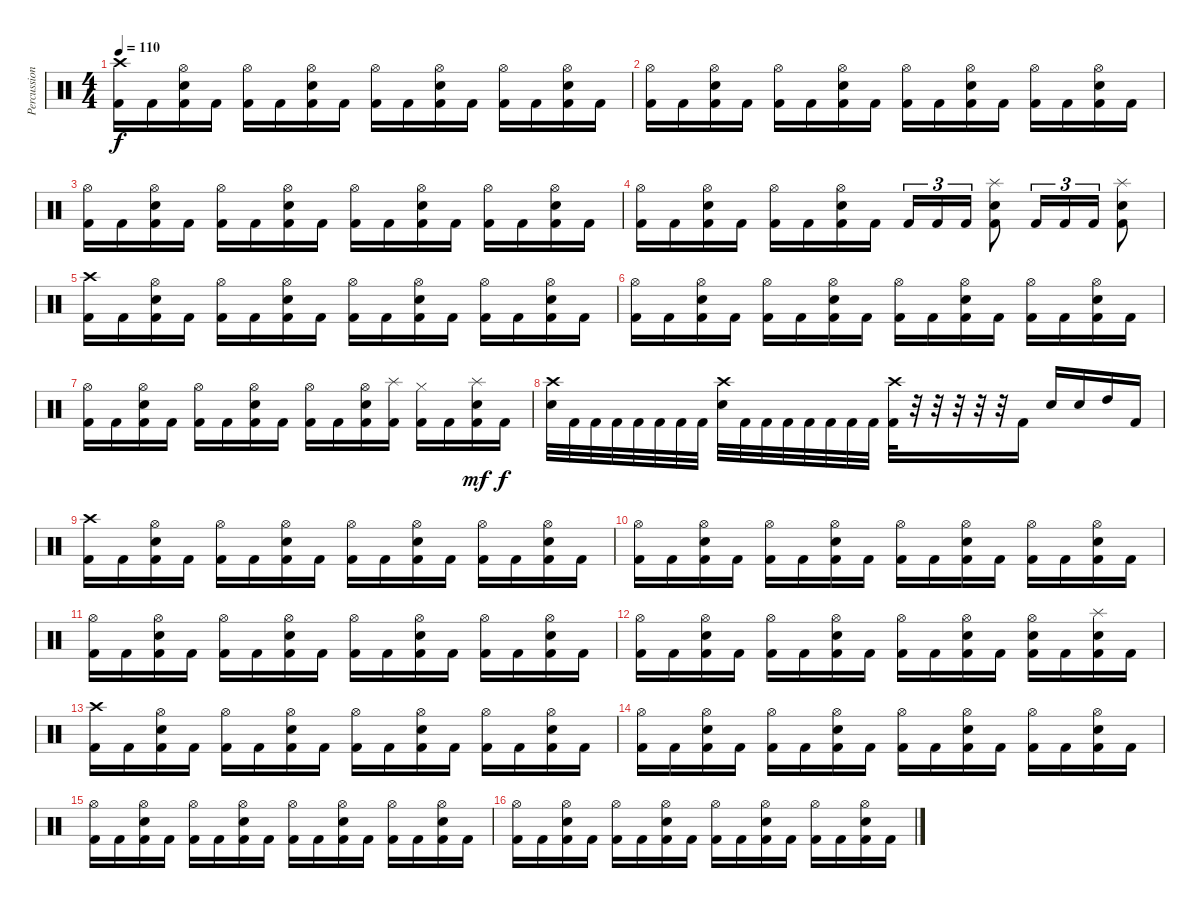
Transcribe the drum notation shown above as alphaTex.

\track ("Percussion" "Percussion") {instrument percussion}
\staff {score}
\articulation defaults
\ts (4 4)
\tempo 110
\clef neutral
\ks c
("Crash high (hit)" "Kick (hit) 2").16{dy f} "Kick (hit) 2".16 ("Hi-Hat (open)" "Electric Snare (hit)" "Kick (hit) 2").16 "Kick (hit) 2".16 ("Hi-Hat (open)" "Kick (hit) 2").16 "Kick (hit) 2".16 ("Hi-Hat (open)" "Electric Snare (hit)" "Kick (hit) 2").16 "Kick (hit) 2".16 ("Hi-Hat (open)" "Kick (hit) 2").16 "Kick (hit) 2".16 ("Hi-Hat (open)" "Electric Snare (hit)" "Kick (hit) 2").16 "Kick (hit) 2".16 ("Hi-Hat (open)" "Kick (hit) 2").16 "Kick (hit) 2".16 ("Hi-Hat (open)" "Electric Snare (hit)" "Kick (hit) 2").16 "Kick (hit) 2".16 |
("Hi-Hat (open)" "Kick (hit) 2").16 "Kick (hit) 2".16 ("Hi-Hat (open)" "Electric Snare (hit)" "Kick (hit) 2").16 "Kick (hit) 2".16 ("Hi-Hat (open)" "Kick (hit) 2").16 "Kick (hit) 2".16 ("Hi-Hat (open)" "Electric Snare (hit)" "Kick (hit) 2").16 "Kick (hit) 2".16 ("Hi-Hat (open)" "Kick (hit) 2").16 "Kick (hit) 2".16 ("Hi-Hat (open)" "Electric Snare (hit)" "Kick (hit) 2").16 "Kick (hit) 2".16 ("Hi-Hat (open)" "Kick (hit) 2").16 "Kick (hit) 2".16 ("Hi-Hat (open)" "Electric Snare (hit)" "Kick (hit) 2").16 "Kick (hit) 2".16 |
("Hi-Hat (open)" "Kick (hit) 2").16 "Kick (hit) 2".16 ("Hi-Hat (open)" "Electric Snare (hit)" "Kick (hit) 2").16 "Kick (hit) 2".16 ("Hi-Hat (open)" "Kick (hit) 2").16 "Kick (hit) 2".16 ("Hi-Hat (open)" "Electric Snare (hit)" "Kick (hit) 2").16 "Kick (hit) 2".16 ("Hi-Hat (open)" "Kick (hit) 2").16 "Kick (hit) 2".16 ("Hi-Hat (open)" "Electric Snare (hit)" "Kick (hit) 2").16 "Kick (hit) 2".16 ("Hi-Hat (open)" "Kick (hit) 2").16 "Kick (hit) 2".16 ("Hi-Hat (open)" "Electric Snare (hit)" "Kick (hit) 2").16 "Kick (hit) 2".16 |
("Hi-Hat (open)" "Kick (hit) 2").16 "Kick (hit) 2".16 ("Hi-Hat (open)" "Electric Snare (hit)" "Kick (hit) 2").16 "Kick (hit) 2".16 ("Hi-Hat (open)" "Kick (hit) 2").16 "Kick (hit) 2".16 ("Hi-Hat (open)" "Electric Snare (hit)" "Kick (hit) 2").16 "Kick (hit) 2".16 "Kick (hit) 2".16{tu (3 2)} "Kick (hit) 2".16{tu (3 2)} "Kick (hit) 2".16{tu (3 2)} ("Splash (hit)" "Electric Snare (hit)" "Kick (hit) 2").8 "Kick (hit) 2".16{tu (3 2)} "Kick (hit) 2".16{tu (3 2)} "Kick (hit) 2".16{tu (3 2)} ("Splash (hit)" "Electric Snare (hit)" "Kick (hit) 2").8 |
("Crash high (hit)" "Kick (hit) 2").16 "Kick (hit) 2".16 ("Hi-Hat (open)" "Electric Snare (hit)" "Kick (hit) 2").16 "Kick (hit) 2".16 ("Hi-Hat (open)" "Kick (hit) 2").16 "Kick (hit) 2".16 ("Hi-Hat (open)" "Electric Snare (hit)" "Kick (hit) 2").16 "Kick (hit) 2".16 ("Hi-Hat (open)" "Kick (hit) 2").16 "Kick (hit) 2".16 ("Hi-Hat (open)" "Electric Snare (hit)" "Kick (hit) 2").16 "Kick (hit) 2".16 ("Hi-Hat (open)" "Kick (hit) 2").16 "Kick (hit) 2".16 ("Hi-Hat (open)" "Electric Snare (hit)" "Kick (hit) 2").16 "Kick (hit) 2".16 |
("Hi-Hat (open)" "Kick (hit) 2").16 "Kick (hit) 2".16 ("Hi-Hat (open)" "Electric Snare (hit)" "Kick (hit) 2").16 "Kick (hit) 2".16 ("Hi-Hat (open)" "Kick (hit) 2").16 "Kick (hit) 2".16 ("Hi-Hat (open)" "Electric Snare (hit)" "Kick (hit) 2").16 "Kick (hit) 2".16 ("Hi-Hat (open)" "Kick (hit) 2").16 "Kick (hit) 2".16 ("Hi-Hat (open)" "Electric Snare (hit)" "Kick (hit) 2").16 "Kick (hit) 2".16 ("Hi-Hat (open)" "Kick (hit) 2").16 "Kick (hit) 2".16 ("Hi-Hat (open)" "Electric Snare (hit)" "Kick (hit) 2").16 "Kick (hit) 2".16 |
("Hi-Hat (open)" "Kick (hit) 2").16 "Kick (hit) 2".16 ("Hi-Hat (open)" "Electric Snare (hit)" "Kick (hit) 2").16 "Kick (hit) 2".16 ("Hi-Hat (open)" "Kick (hit) 2").16 "Kick (hit) 2".16 ("Hi-Hat (open)" "Electric Snare (hit)" "Kick (hit) 2").16 "Kick (hit) 2".16 ("Hi-Hat (open)" "Kick (hit) 2").16 "Kick (hit) 2".16 ("Hi-Hat (open)" "Electric Snare (hit)" "Kick (hit) 2").16 ("Splash (hit)" "Kick (hit) 2").16 ("Hi-Hat (closed)" "Kick (hit) 2").16 "Kick (hit) 2".16 ("Splash (hit)" "Electric Snare (hit)" "Kick (hit) 2").16{dy mf} "Kick (hit) 2".16{dy f} |
("Crash high (hit)" "Electric Snare (hit)").32 "Kick (hit) 2".32 "Kick (hit) 2".32 "Kick (hit) 2".32 "Kick (hit) 2".32 "Kick (hit) 2".32 "Kick (hit) 2".32 "Kick (hit) 2".32 ("Crash high (hit)" "Electric Snare (hit)").32 "Kick (hit) 2".32 "Kick (hit) 2".32 "Kick (hit) 2".32 "Kick (hit) 2".32 "Kick (hit) 2".32 "Kick (hit) 2".32 "Kick (hit) 2".32 ("Crash high (hit)" "Kick (hit) 2").32 r.32 r.32 r.32 r.32 r.32 "Kick (hit) 2".16 "Electric Snare (hit)".16 "Electric Snare (hit)".16 "High Tom (hit)".16 "Kick (hit) 2".16 |
("Crash high (hit)" "Kick (hit) 2").16 "Kick (hit) 2".16 ("Hi-Hat (open)" "Electric Snare (hit)" "Kick (hit) 2").16 "Kick (hit) 2".16 ("Hi-Hat (open)" "Kick (hit) 2").16 "Kick (hit) 2".16 ("Hi-Hat (open)" "Electric Snare (hit)" "Kick (hit) 2").16 "Kick (hit) 2".16 ("Hi-Hat (open)" "Kick (hit) 2").16 "Kick (hit) 2".16 ("Hi-Hat (open)" "Electric Snare (hit)" "Kick (hit) 2").16 "Kick (hit) 2".16 ("Hi-Hat (open)" "Kick (hit) 2").16 "Kick (hit) 2".16 ("Hi-Hat (open)" "Electric Snare (hit)" "Kick (hit) 2").16 "Kick (hit) 2".16 |
("Hi-Hat (open)" "Kick (hit) 2").16 "Kick (hit) 2".16 ("Hi-Hat (open)" "Electric Snare (hit)" "Kick (hit) 2").16 "Kick (hit) 2".16 ("Hi-Hat (open)" "Kick (hit) 2").16 "Kick (hit) 2".16 ("Hi-Hat (open)" "Electric Snare (hit)" "Kick (hit) 2").16 "Kick (hit) 2".16 ("Hi-Hat (open)" "Kick (hit) 2").16 "Kick (hit) 2".16 ("Hi-Hat (open)" "Electric Snare (hit)" "Kick (hit) 2").16 "Kick (hit) 2".16 ("Hi-Hat (open)" "Kick (hit) 2").16 "Kick (hit) 2".16 ("Hi-Hat (open)" "Electric Snare (hit)" "Kick (hit) 2").16 "Kick (hit) 2".16 |
("Hi-Hat (open)" "Kick (hit) 2").16 "Kick (hit) 2".16 ("Hi-Hat (open)" "Electric Snare (hit)" "Kick (hit) 2").16 "Kick (hit) 2".16 ("Hi-Hat (open)" "Kick (hit) 2").16 "Kick (hit) 2".16 ("Hi-Hat (open)" "Electric Snare (hit)" "Kick (hit) 2").16 "Kick (hit) 2".16 ("Hi-Hat (open)" "Kick (hit) 2").16 "Kick (hit) 2".16 ("Hi-Hat (open)" "Electric Snare (hit)" "Kick (hit) 2").16 "Kick (hit) 2".16 ("Hi-Hat (open)" "Kick (hit) 2").16 "Kick (hit) 2".16 ("Hi-Hat (open)" "Electric Snare (hit)" "Kick (hit) 2").16 "Kick (hit) 2".16 |
("Hi-Hat (open)" "Kick (hit) 2").16 "Kick (hit) 2".16 ("Hi-Hat (open)" "Electric Snare (hit)" "Kick (hit) 2").16 "Kick (hit) 2".16 ("Hi-Hat (open)" "Kick (hit) 2").16 "Kick (hit) 2".16 ("Hi-Hat (open)" "Electric Snare (hit)" "Kick (hit) 2").16 "Kick (hit) 2".16 ("Hi-Hat (open)" "Kick (hit) 2").16 "Kick (hit) 2".16 ("Hi-Hat (open)" "Electric Snare (hit)" "Kick (hit) 2").16 "Kick (hit) 2".16 ("Hi-Hat (open)" "Electric Snare (hit)" "Kick (hit) 2").16 "Kick (hit) 2".16 ("Splash (hit)" "Electric Snare (hit)" "Kick (hit) 2").16 "Kick (hit) 2".16 |
("Crash high (hit)" "Kick (hit) 2").16 "Kick (hit) 2".16 ("Hi-Hat (open)" "Electric Snare (hit)" "Kick (hit) 2").16 "Kick (hit) 2".16 ("Hi-Hat (open)" "Kick (hit) 2").16 "Kick (hit) 2".16 ("Hi-Hat (open)" "Electric Snare (hit)" "Kick (hit) 2").16 "Kick (hit) 2".16 ("Hi-Hat (open)" "Kick (hit) 2").16 "Kick (hit) 2".16 ("Hi-Hat (open)" "Electric Snare (hit)" "Kick (hit) 2").16 "Kick (hit) 2".16 ("Hi-Hat (open)" "Kick (hit) 2").16 "Kick (hit) 2".16 ("Hi-Hat (open)" "Electric Snare (hit)" "Kick (hit) 2").16 "Kick (hit) 2".16 |
("Hi-Hat (open)" "Kick (hit) 2").16 "Kick (hit) 2".16 ("Hi-Hat (open)" "Electric Snare (hit)" "Kick (hit) 2").16 "Kick (hit) 2".16 ("Hi-Hat (open)" "Kick (hit) 2").16 "Kick (hit) 2".16 ("Hi-Hat (open)" "Electric Snare (hit)" "Kick (hit) 2").16 "Kick (hit) 2".16 ("Hi-Hat (open)" "Kick (hit) 2").16 "Kick (hit) 2".16 ("Hi-Hat (open)" "Electric Snare (hit)" "Kick (hit) 2").16 "Kick (hit) 2".16 ("Hi-Hat (open)" "Kick (hit) 2").16 "Kick (hit) 2".16 ("Hi-Hat (open)" "Electric Snare (hit)" "Kick (hit) 2").16 "Kick (hit) 2".16 |
("Hi-Hat (open)" "Kick (hit) 2").16 "Kick (hit) 2".16 ("Hi-Hat (open)" "Electric Snare (hit)" "Kick (hit) 2").16 "Kick (hit) 2".16 ("Hi-Hat (open)" "Kick (hit) 2").16 "Kick (hit) 2".16 ("Hi-Hat (open)" "Electric Snare (hit)" "Kick (hit) 2").16 "Kick (hit) 2".16 ("Hi-Hat (open)" "Kick (hit) 2").16 "Kick (hit) 2".16 ("Hi-Hat (open)" "Electric Snare (hit)" "Kick (hit) 2").16 "Kick (hit) 2".16 ("Hi-Hat (open)" "Kick (hit) 2").16 "Kick (hit) 2".16 ("Hi-Hat (open)" "Electric Snare (hit)" "Kick (hit) 2").16 "Kick (hit) 2".16 |
("Hi-Hat (open)" "Kick (hit) 2").16 "Kick (hit) 2".16 ("Hi-Hat (open)" "Electric Snare (hit)" "Kick (hit) 2").16 "Kick (hit) 2".16 ("Hi-Hat (open)" "Kick (hit) 2").16 "Kick (hit) 2".16 ("Hi-Hat (open)" "Electric Snare (hit)" "Kick (hit) 2").16 "Kick (hit) 2".16 ("Hi-Hat (open)" "Kick (hit) 2").16 "Kick (hit) 2".16 ("Hi-Hat (open)" "Electric Snare (hit)" "Kick (hit) 2").16 "Kick (hit) 2".16 ("Hi-Hat (open)" "Kick (hit) 2").16 "Kick (hit) 2".16 ("Hi-Hat (open)" "Electric Snare (hit)" "Kick (hit) 2").16 "Kick (hit) 2".16
